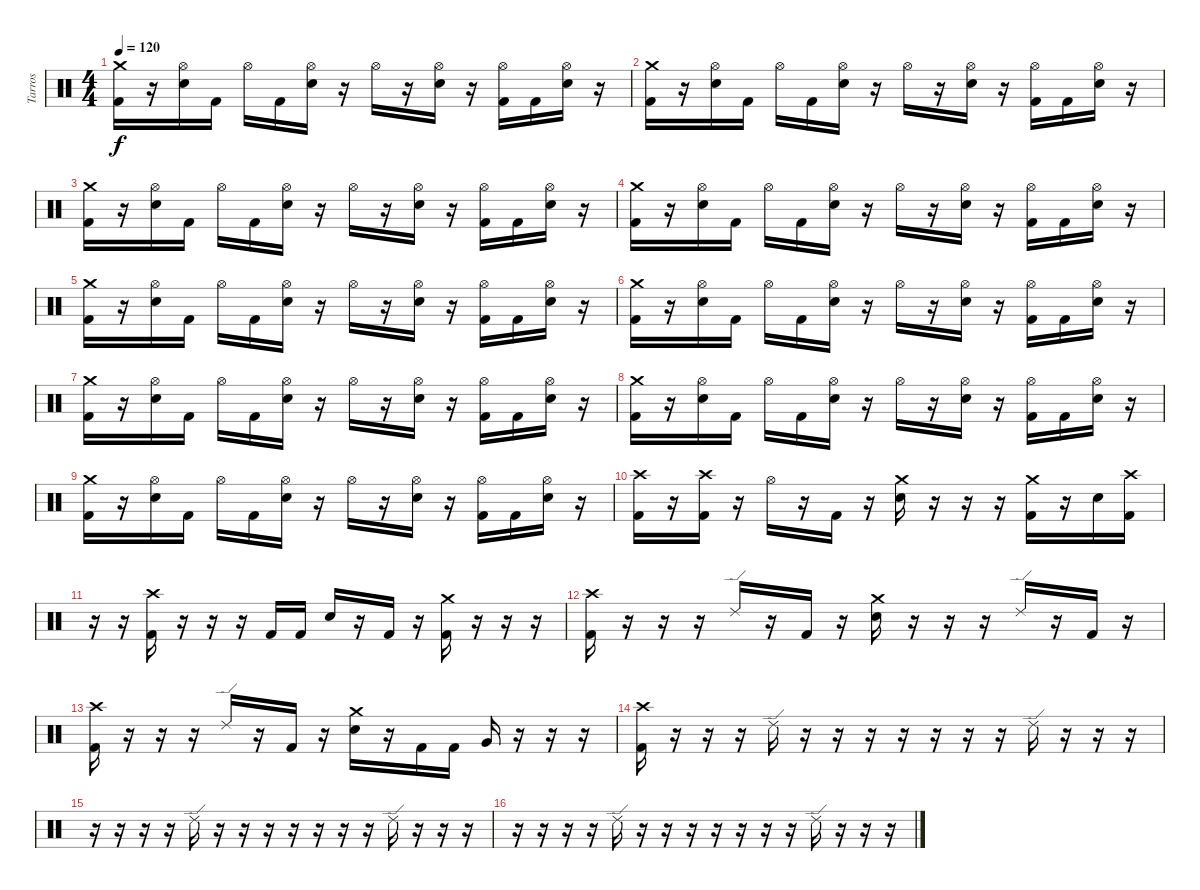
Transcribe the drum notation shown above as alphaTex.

\track ("Tarros" "Tarros") {instrument percussion}
\staff {score}
\articulation defaults
\ts (4 4)
\tempo 120
\clef neutral
\ks c
("Crash medium (hit)" "Kick (hit) 2").16{dy f} r.16 ("Hi-Hat (open)" "Electric Snare (hit)").16 "Kick (hit) 2".16 "Hi-Hat (open)".16 "Kick (hit) 2".16 ("Hi-Hat (open)" "Electric Snare (hit)").16 r.16 "Hi-Hat (open)".16 r.16 ("Hi-Hat (open)" "Electric Snare (hit)").16 r.16 ("Hi-Hat (open)" "Kick (hit) 2").16 "Kick (hit) 2".16 ("Hi-Hat (open)" "Electric Snare (hit)").16 r.16 |
("Crash medium (hit)" "Kick (hit) 2").16 r.16 ("Hi-Hat (open)" "Electric Snare (hit)").16 "Kick (hit) 2".16 "Hi-Hat (open)".16 "Kick (hit) 2".16 ("Hi-Hat (open)" "Electric Snare (hit)").16 r.16 "Hi-Hat (open)".16 r.16 ("Hi-Hat (open)" "Electric Snare (hit)").16 r.16 ("Hi-Hat (open)" "Kick (hit) 2").16 "Kick (hit) 2".16 ("Hi-Hat (open)" "Electric Snare (hit)").16 r.16 |
("Crash medium (hit)" "Kick (hit) 2").16 r.16 ("Hi-Hat (open)" "Electric Snare (hit)").16 "Kick (hit) 2".16 "Hi-Hat (open)".16 "Kick (hit) 2".16 ("Hi-Hat (open)" "Electric Snare (hit)").16 r.16 "Hi-Hat (open)".16 r.16 ("Hi-Hat (open)" "Electric Snare (hit)").16 r.16 ("Hi-Hat (open)" "Kick (hit) 2").16 "Kick (hit) 2".16 ("Hi-Hat (open)" "Electric Snare (hit)").16 r.16 |
("Crash medium (hit)" "Kick (hit) 2").16 r.16 ("Hi-Hat (open)" "Electric Snare (hit)").16 "Kick (hit) 2".16 "Hi-Hat (open)".16 "Kick (hit) 2".16 ("Hi-Hat (open)" "Electric Snare (hit)").16 r.16 "Hi-Hat (open)".16 r.16 ("Hi-Hat (open)" "Electric Snare (hit)").16 r.16 ("Hi-Hat (open)" "Kick (hit) 2").16 "Kick (hit) 2".16 ("Hi-Hat (open)" "Electric Snare (hit)").16 r.16 |
("Crash medium (hit)" "Kick (hit) 2").16 r.16 ("Hi-Hat (open)" "Electric Snare (hit)").16 "Kick (hit) 2".16 "Hi-Hat (open)".16 "Kick (hit) 2".16 ("Hi-Hat (open)" "Electric Snare (hit)").16 r.16 "Hi-Hat (open)".16 r.16 ("Hi-Hat (open)" "Electric Snare (hit)").16 r.16 ("Hi-Hat (open)" "Kick (hit) 2").16 "Kick (hit) 2".16 ("Hi-Hat (open)" "Electric Snare (hit)").16 r.16 |
("Crash medium (hit)" "Kick (hit) 2").16 r.16 ("Hi-Hat (open)" "Electric Snare (hit)").16 "Kick (hit) 2".16 "Hi-Hat (open)".16 "Kick (hit) 2".16 ("Hi-Hat (open)" "Electric Snare (hit)").16 r.16 "Hi-Hat (open)".16 r.16 ("Hi-Hat (open)" "Electric Snare (hit)").16 r.16 ("Hi-Hat (open)" "Kick (hit) 2").16 "Kick (hit) 2".16 ("Hi-Hat (open)" "Electric Snare (hit)").16 r.16 |
("Crash medium (hit)" "Kick (hit) 2").16 r.16 ("Hi-Hat (open)" "Electric Snare (hit)").16 "Kick (hit) 2".16 "Hi-Hat (open)".16 "Kick (hit) 2".16 ("Hi-Hat (open)" "Electric Snare (hit)").16 r.16 "Hi-Hat (open)".16 r.16 ("Hi-Hat (open)" "Electric Snare (hit)").16 r.16 ("Hi-Hat (open)" "Kick (hit) 2").16 "Kick (hit) 2".16 ("Hi-Hat (open)" "Electric Snare (hit)").16 r.16 |
("Crash medium (hit)" "Kick (hit) 2").16 r.16 ("Hi-Hat (open)" "Electric Snare (hit)").16 "Kick (hit) 2".16 "Hi-Hat (open)".16 "Kick (hit) 2".16 ("Hi-Hat (open)" "Electric Snare (hit)").16 r.16 "Hi-Hat (open)".16 r.16 ("Hi-Hat (open)" "Electric Snare (hit)").16 r.16 ("Hi-Hat (open)" "Kick (hit) 2").16 "Kick (hit) 2".16 ("Hi-Hat (open)" "Electric Snare (hit)").16 r.16 |
("Crash medium (hit)" "Kick (hit) 2").16 r.16 ("Hi-Hat (open)" "Electric Snare (hit)").16 "Kick (hit) 2".16 "Hi-Hat (open)".16 "Kick (hit) 2".16 ("Hi-Hat (open)" "Electric Snare (hit)").16 r.16 "Hi-Hat (open)".16 r.16 ("Hi-Hat (open)" "Electric Snare (hit)").16 r.16 ("Hi-Hat (open)" "Kick (hit) 2").16 "Kick (hit) 2".16 ("Hi-Hat (open)" "Electric Snare (hit)").16 r.16 |
("Crash high (hit)" "Kick (hit) 2").16 r.16 ("Crash high (hit)" "Kick (hit) 2").16 r.16 "Hi-Hat (open)".16 r.16 "Kick (hit) 2".16 r.16 ("Crash medium (hit)" "Electric Snare (hit)").16 r.16 r.16 r.16 ("Crash medium (hit)" "Kick (hit) 2").16 r.16 "Electric Snare (hit)".16 ("Crash high (hit)" "Kick (hit) 2").16 |
r.16 r.16 ("Crash high (hit)" "Kick (hit) 2").16 r.16 r.16 r.16 "Kick (hit) 2".16 "Kick (hit) 2".16 "Electric Snare (hit)".16 r.16 "Kick (hit) 2".16 r.16 ("Crash medium (hit)" "Kick (hit) 2").16 r.16 r.16 r.16 |
("Crash high (hit)" "Kick (hit) 2").16 r.16 r.16 r.16 "Ride (edge) 2".16 r.16 "Kick (hit) 2".16 r.16 ("Crash medium (hit)" "Electric Snare (hit)").16 r.16 r.16 r.16 "Ride (edge) 2".16 r.16 "Kick (hit) 2".16 r.16 |
("Crash high (hit)" "Kick (hit) 2").16 r.16 r.16 r.16 "Ride (edge) 2".16 r.16 "Kick (hit) 2".16 r.16 ("Crash medium (hit)" "Electric Snare (hit)").16 r.16 "Kick (hit) 2".16 "Kick (hit) 2".16 "Very Low Tom (hit)".16 r.16 r.16 r.16 |
("Crash high (hit)" "Kick (hit) 2").16 r.16 r.16 r.16 "Ride (edge) 2".16 r.16 r.16 r.16 r.16 r.16 r.16 r.16 "Ride (edge) 2".16 r.16 r.16 r.16 |
r.16 r.16 r.16 r.16 "Ride (edge) 2".16 r.16 r.16 r.16 r.16 r.16 r.16 r.16 "Ride (edge) 2".16 r.16 r.16 r.16 |
r.16 r.16 r.16 r.16 "Ride (edge) 2".16 r.16 r.16 r.16 r.16 r.16 r.16 r.16 "Ride (edge) 2".16 r.16 r.16 r.16
